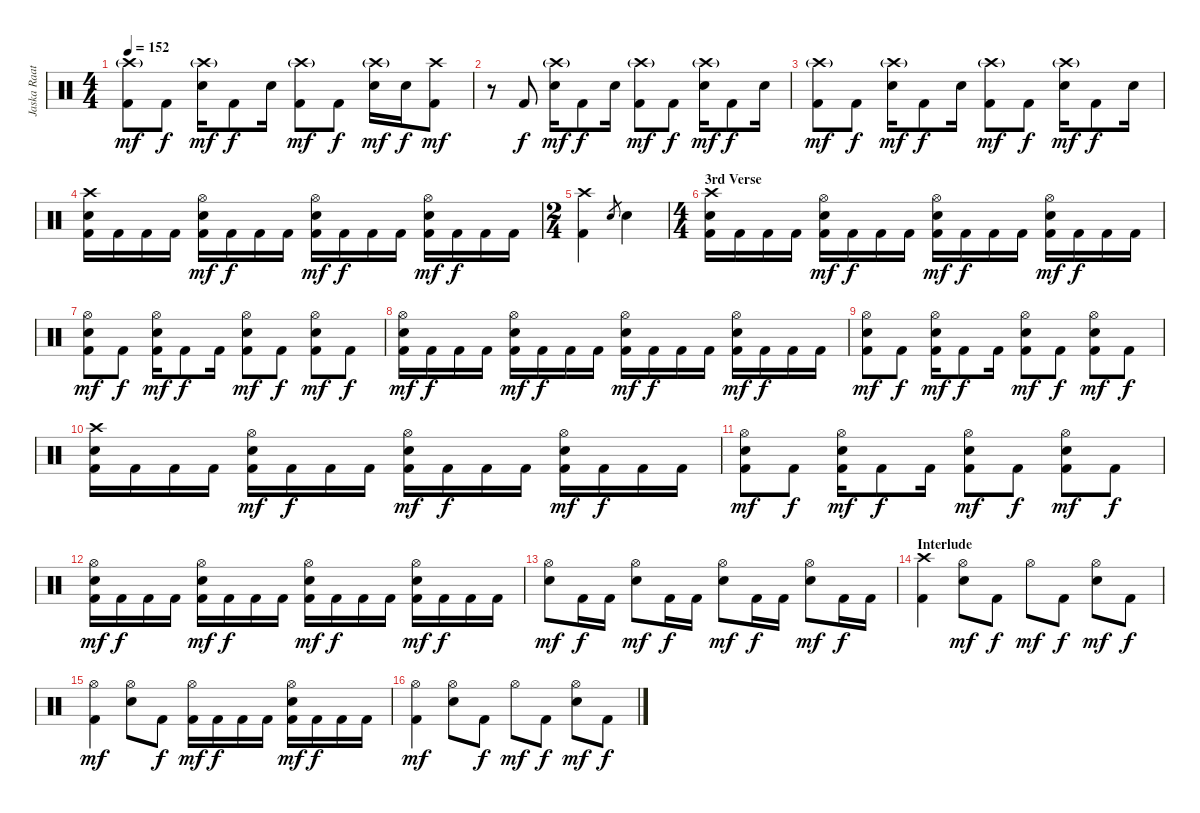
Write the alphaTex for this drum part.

\track ("Jaska Raatikainen" "Jaska Raat") {instrument percussion}
\staff {score}
\articulation defaults
\ts (4 4)
\tempo 152
\clef neutral
\ks c
("Crash high (hit)"{g} "Kick (hit) 2").8{dy mf} "Kick (hit) 2".8{dy f} ("Crash high (hit)"{g} "Electric Snare (hit)").16{dy mf} "Kick (hit) 2".8{dy f} "Electric Snare (hit)".16 ("Crash high (hit)"{g} "Kick (hit) 2").8{dy mf} "Kick (hit) 2".8{dy f} ("Crash high (hit)"{g} "Electric Snare (hit)").16{dy mf} "Electric Snare (hit)".16{dy f} ("Crash high (hit)" "Kick (hit) 2").8{dy mf} |
r.8 "Kick (hit) 2".8{dy f} ("Crash high (hit)"{g} "Electric Snare (hit)").16{dy mf} "Kick (hit) 2".8{dy f} "Electric Snare (hit)".16 ("Crash high (hit)"{g} "Kick (hit) 2").8{dy mf} "Kick (hit) 2".8{dy f} ("Crash high (hit)"{g} "Electric Snare (hit)").16{dy mf} "Kick (hit) 2".8{dy f} "Electric Snare (hit)".16 |
("Crash high (hit)"{g} "Kick (hit) 2").8{dy mf} "Kick (hit) 2".8{dy f} ("Crash high (hit)"{g} "Electric Snare (hit)").16{dy mf} "Kick (hit) 2".8{dy f} "Electric Snare (hit)".16 ("Crash high (hit)"{g} "Kick (hit) 2").8{dy mf} "Kick (hit) 2".8{dy f} ("Crash high (hit)"{g} "Electric Snare (hit)").16{dy mf} "Kick (hit) 2".8{dy f} "Electric Snare (hit)".16 |
("Crash high (hit)" "Electric Snare (hit)" "Kick (hit) 2").16 "Kick (hit) 2".16 "Kick (hit) 2".16 "Kick (hit) 2".16 ("Hi-Hat (open)" "Electric Snare (hit)" "Kick (hit) 2").16{dy mf} "Kick (hit) 2".16{dy f} "Kick (hit) 2".16 "Kick (hit) 2".16 ("Hi-Hat (open)" "Electric Snare (hit)" "Kick (hit) 2").16{dy mf} "Kick (hit) 2".16{dy f} "Kick (hit) 2".16 "Kick (hit) 2".16 ("Hi-Hat (open)" "Electric Snare (hit)" "Kick (hit) 2").16{dy mf} "Kick (hit) 2".16{dy f} "Kick (hit) 2".16 "Kick (hit) 2".16 |
\ts (2 4)
("Crash high (hit)" "Kick (hit) 2").4 "Electric Snare (hit)".8{gr} "Electric Snare (hit)".4 |
\ts (4 4)
\section ("" "3rd Verse")
("Crash high (hit)" "Electric Snare (hit)" "Kick (hit) 2").16 "Kick (hit) 2".16 "Kick (hit) 2".16 "Kick (hit) 2".16 ("Hi-Hat (open)" "Electric Snare (hit)" "Kick (hit) 2").16{dy mf} "Kick (hit) 2".16{dy f} "Kick (hit) 2".16 "Kick (hit) 2".16 ("Hi-Hat (open)" "Electric Snare (hit)" "Kick (hit) 2").16{dy mf} "Kick (hit) 2".16{dy f} "Kick (hit) 2".16 "Kick (hit) 2".16 ("Hi-Hat (open)" "Electric Snare (hit)" "Kick (hit) 2").16{dy mf} "Kick (hit) 2".16{dy f} "Kick (hit) 2".16 "Kick (hit) 2".16 |
("Hi-Hat (open)" "Electric Snare (hit)" "Kick (hit) 2").8{dy mf} "Kick (hit) 2".8{dy f} ("Hi-Hat (open)" "Electric Snare (hit)" "Kick (hit) 2").16{dy mf} "Kick (hit) 2".8{dy f} "Kick (hit) 2".16 ("Hi-Hat (open)" "Electric Snare (hit)" "Kick (hit) 2").8{dy mf} "Kick (hit) 2".8{dy f} ("Hi-Hat (open)" "Electric Snare (hit)" "Kick (hit) 2").8{dy mf} "Kick (hit) 2".8{dy f} |
("Hi-Hat (open)" "Electric Snare (hit)" "Kick (hit) 2").16{dy mf} "Kick (hit) 2".16{dy f} "Kick (hit) 2".16 "Kick (hit) 2".16 ("Hi-Hat (open)" "Electric Snare (hit)" "Kick (hit) 2").16{dy mf} "Kick (hit) 2".16{dy f} "Kick (hit) 2".16 "Kick (hit) 2".16 ("Hi-Hat (open)" "Electric Snare (hit)" "Kick (hit) 2").16{dy mf} "Kick (hit) 2".16{dy f} "Kick (hit) 2".16 "Kick (hit) 2".16 ("Hi-Hat (open)" "Electric Snare (hit)" "Kick (hit) 2").16{dy mf} "Kick (hit) 2".16{dy f} "Kick (hit) 2".16 "Kick (hit) 2".16 |
("Hi-Hat (open)" "Electric Snare (hit)" "Kick (hit) 2").8{dy mf} "Kick (hit) 2".8{dy f} ("Hi-Hat (open)" "Electric Snare (hit)" "Kick (hit) 2").16{dy mf} "Kick (hit) 2".8{dy f} "Kick (hit) 2".16 ("Hi-Hat (open)" "Electric Snare (hit)" "Kick (hit) 2").8{dy mf} "Kick (hit) 2".8{dy f} ("Hi-Hat (open)" "Electric Snare (hit)" "Kick (hit) 2").8{dy mf} "Kick (hit) 2".8{dy f} |
("Crash high (hit)" "Electric Snare (hit)" "Kick (hit) 2").16 "Kick (hit) 2".16 "Kick (hit) 2".16 "Kick (hit) 2".16 ("Hi-Hat (open)" "Electric Snare (hit)" "Kick (hit) 2").16{dy mf} "Kick (hit) 2".16{dy f} "Kick (hit) 2".16 "Kick (hit) 2".16 ("Hi-Hat (open)" "Electric Snare (hit)" "Kick (hit) 2").16{dy mf} "Kick (hit) 2".16{dy f} "Kick (hit) 2".16 "Kick (hit) 2".16 ("Hi-Hat (open)" "Electric Snare (hit)" "Kick (hit) 2").16{dy mf} "Kick (hit) 2".16{dy f} "Kick (hit) 2".16 "Kick (hit) 2".16 |
("Hi-Hat (open)" "Electric Snare (hit)" "Kick (hit) 2").8{dy mf} "Kick (hit) 2".8{dy f} ("Hi-Hat (open)" "Electric Snare (hit)" "Kick (hit) 2").16{dy mf} "Kick (hit) 2".8{dy f} "Kick (hit) 2".16 ("Hi-Hat (open)" "Electric Snare (hit)" "Kick (hit) 2").8{dy mf} "Kick (hit) 2".8{dy f} ("Hi-Hat (open)" "Electric Snare (hit)" "Kick (hit) 2").8{dy mf} "Kick (hit) 2".8{dy f} |
("Hi-Hat (open)" "Electric Snare (hit)" "Kick (hit) 2").16{dy mf} "Kick (hit) 2".16{dy f} "Kick (hit) 2".16 "Kick (hit) 2".16 ("Hi-Hat (open)" "Electric Snare (hit)" "Kick (hit) 2").16{dy mf} "Kick (hit) 2".16{dy f} "Kick (hit) 2".16 "Kick (hit) 2".16 ("Hi-Hat (open)" "Electric Snare (hit)" "Kick (hit) 2").16{dy mf} "Kick (hit) 2".16{dy f} "Kick (hit) 2".16 "Kick (hit) 2".16 ("Hi-Hat (open)" "Electric Snare (hit)" "Kick (hit) 2").16{dy mf} "Kick (hit) 2".16{dy f} "Kick (hit) 2".16 "Kick (hit) 2".16 |
("Hi-Hat (open)" "Electric Snare (hit)").8{dy mf} "Kick (hit) 2".16{dy f} "Kick (hit) 2".16 ("Hi-Hat (open)" "Electric Snare (hit)").8{dy mf} "Kick (hit) 2".16{dy f} "Kick (hit) 2".16 ("Hi-Hat (open)" "Electric Snare (hit)").8{dy mf} "Kick (hit) 2".16{dy f} "Kick (hit) 2".16 ("Hi-Hat (open)" "Electric Snare (hit)").8{dy mf} "Kick (hit) 2".16{dy f} "Kick (hit) 2".16 |
\section ("" "Interlude")
("Crash high (hit)" "Kick (hit) 2").4 ("Hi-Hat (open)" "Electric Snare (hit)").8{dy mf} "Kick (hit) 2".8{dy f} "Hi-Hat (open)".8{dy mf} "Kick (hit) 2".8{dy f} ("Hi-Hat (open)" "Electric Snare (hit)").8{dy mf} "Kick (hit) 2".8{dy f} |
("Hi-Hat (open)" "Kick (hit) 2").4{dy mf} ("Hi-Hat (open)" "Electric Snare (hit)").8 "Kick (hit) 2".8{dy f} ("Hi-Hat (open)" "Kick (hit) 2").16{dy mf} "Kick (hit) 2".16{dy f} "Kick (hit) 2".16 "Kick (hit) 2".16 ("Hi-Hat (open)" "Electric Snare (hit)" "Kick (hit) 2").16{dy mf} "Kick (hit) 2".16{dy f} "Kick (hit) 2".16 "Kick (hit) 2".16 |
("Hi-Hat (open)" "Kick (hit) 2").4{dy mf} ("Hi-Hat (open)" "Electric Snare (hit)").8 "Kick (hit) 2".8{dy f} "Hi-Hat (open)".8{dy mf} "Kick (hit) 2".8{dy f} ("Hi-Hat (open)" "Electric Snare (hit)").8{dy mf} "Kick (hit) 2".8{dy f}
